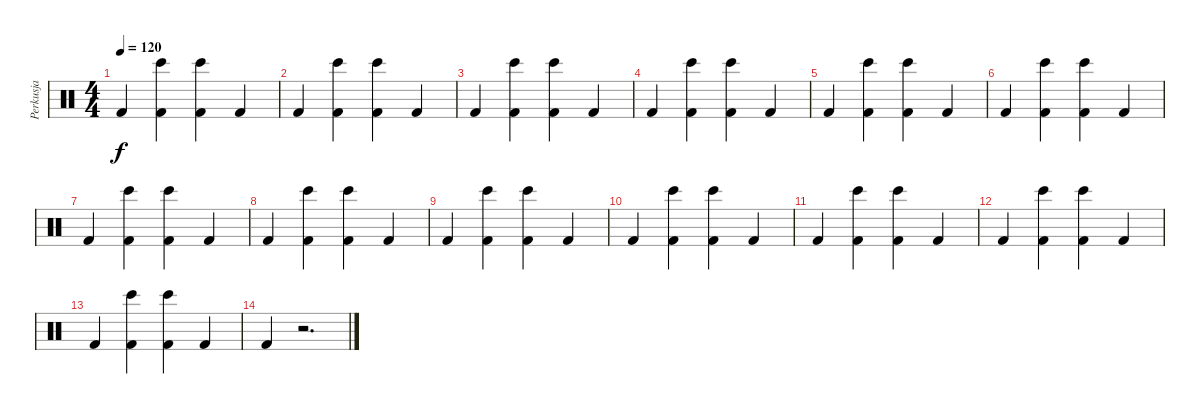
\track ("Perkusja" "Perkusja") {instrument percussion}
\staff {score}
\articulation defaults
\ts (4 4)
\tempo 120
\clef neutral
\ks c "Kick (hit) 2".4{dy f}
("Bongo High (hit)" "Kick (hit) 2").4 ("Bongo High (hit)" "Kick (hit) 2").4 "Kick (hit) 2".4 |
"Kick (hit) 2".4 ("Bongo High (hit)" "Kick (hit) 2").4 ("Bongo High (hit)" "Kick (hit) 2").4 "Kick (hit) 2".4 |
"Kick (hit) 2".4 ("Bongo High (hit)" "Kick (hit) 2").4 ("Bongo High (hit)" "Kick (hit) 2").4 "Kick (hit) 2".4 |
"Kick (hit) 2".4 ("Bongo High (hit)" "Kick (hit) 2").4 ("Bongo High (hit)" "Kick (hit) 2").4 "Kick (hit) 2".4 |
"Kick (hit) 2".4 ("Bongo High (hit)" "Kick (hit) 2").4 ("Bongo High (hit)" "Kick (hit) 2").4 "Kick (hit) 2".4 |
"Kick (hit) 2".4 ("Bongo High (hit)" "Kick (hit) 2").4 ("Bongo High (hit)" "Kick (hit) 2").4 "Kick (hit) 2".4 |
"Kick (hit) 2".4 ("Bongo High (hit)" "Kick (hit) 2").4 ("Bongo High (hit)" "Kick (hit) 2").4 "Kick (hit) 2".4 |
"Kick (hit) 2".4 ("Bongo High (hit)" "Kick (hit) 2").4 ("Bongo High (hit)" "Kick (hit) 2").4 "Kick (hit) 2".4 |
"Kick (hit) 2".4 ("Bongo High (hit)" "Kick (hit) 2").4 ("Bongo High (hit)" "Kick (hit) 2").4 "Kick (hit) 2".4 |
"Kick (hit) 2".4 ("Bongo High (hit)" "Kick (hit) 2").4 ("Bongo High (hit)" "Kick (hit) 2").4 "Kick (hit) 2".4 |
"Kick (hit) 2".4 ("Bongo High (hit)" "Kick (hit) 2").4 ("Bongo High (hit)" "Kick (hit) 2").4 "Kick (hit) 2".4 |
"Kick (hit) 2".4 ("Bongo High (hit)" "Kick (hit) 2").4 ("Bongo High (hit)" "Kick (hit) 2").4 "Kick (hit) 2".4 |
"Kick (hit) 2".4 ("Bongo High (hit)" "Kick (hit) 2").4 ("Bongo High (hit)" "Kick (hit) 2").4 "Kick (hit) 2".4 |
"Kick (hit) 2".4 r.2{d}
